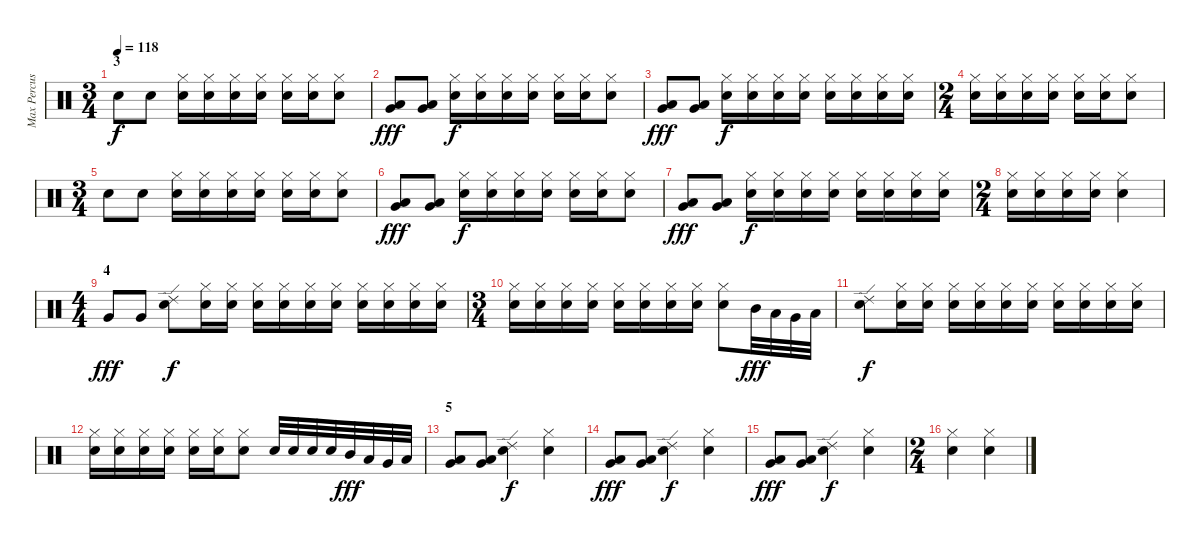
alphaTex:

\track ("Max Percussion" "Max Percus") {instrument percussion}
\staff {score}
\articulation defaults
\ts (3 4)
\section ("" "3")
\tempo 118
\clef neutral
\ks c "Snare (hit) 2".8{dy f} "Snare (hit) 2".8
("Hi-Hat (closed)" "Snare (hit) 2").16 ("Hi-Hat (closed)" "Snare (hit) 2").16 ("Hi-Hat (closed)" "Snare (hit) 2").16 ("Hi-Hat (closed)" "Snare (hit) 2").16 ("Hi-Hat (closed)" "Snare (hit) 2").16 ("Hi-Hat (closed)" "Snare (hit) 2").16 ("Hi-Hat (closed)" "Snare (hit) 2").8 |
("Low Tom (hit)" "Very Low Tom (hit)").8{dy fff} ("Low Tom (hit)" "Very Low Tom (hit)").8 ("Hi-Hat (closed)" "Snare (hit) 2").16{dy f} ("Hi-Hat (closed)" "Snare (hit) 2").16 ("Hi-Hat (closed)" "Snare (hit) 2").16 ("Hi-Hat (closed)" "Snare (hit) 2").16 ("Hi-Hat (closed)" "Snare (hit) 2").16 ("Hi-Hat (closed)" "Snare (hit) 2").16 ("Hi-Hat (closed)" "Snare (hit) 2").8 |
("Very Low Tom (hit)" "Low Floor Tom (hit)").8{dy fff} ("Very Low Tom (hit)" "Low Floor Tom (hit)").8 ("Hi-Hat (closed)" "Snare (hit) 2").16{dy f} ("Hi-Hat (closed)" "Snare (hit) 2").16 ("Hi-Hat (closed)" "Snare (hit) 2").16 ("Hi-Hat (closed)" "Snare (hit) 2").16 ("Hi-Hat (closed)" "Snare (hit) 2").16 ("Hi-Hat (closed)" "Snare (hit) 2").16 ("Hi-Hat (closed)" "Snare (hit) 2").16 ("Hi-Hat (closed)" "Snare (hit) 2").16 |
\ts (2 4)
("Hi-Hat (closed)" "Snare (hit) 2").16 ("Hi-Hat (closed)" "Snare (hit) 2").16 ("Hi-Hat (closed)" "Snare (hit) 2").16 ("Hi-Hat (closed)" "Snare (hit) 2").16 ("Hi-Hat (closed)" "Snare (hit) 2").16 ("Hi-Hat (closed)" "Snare (hit) 2").16 ("Hi-Hat (closed)" "Snare (hit) 2").8 |
\ts (3 4)
"Snare (hit) 2".8 "Snare (hit) 2".8 ("Hi-Hat (closed)" "Snare (hit) 2").16 ("Hi-Hat (closed)" "Snare (hit) 2").16 ("Hi-Hat (closed)" "Snare (hit) 2").16 ("Hi-Hat (closed)" "Snare (hit) 2").16 ("Hi-Hat (closed)" "Snare (hit) 2").16 ("Hi-Hat (closed)" "Snare (hit) 2").16 ("Hi-Hat (closed)" "Snare (hit) 2").8 |
("Low Tom (hit)" "Very Low Tom (hit)").8{dy fff} ("Low Tom (hit)" "Very Low Tom (hit)").8 ("Hi-Hat (closed)" "Snare (hit) 2").16{dy f} ("Hi-Hat (closed)" "Snare (hit) 2").16 ("Hi-Hat (closed)" "Snare (hit) 2").16 ("Hi-Hat (closed)" "Snare (hit) 2").16 ("Hi-Hat (closed)" "Snare (hit) 2").16 ("Hi-Hat (closed)" "Snare (hit) 2").16 ("Hi-Hat (closed)" "Snare (hit) 2").8 |
("Very Low Tom (hit)" "Low Floor Tom (hit)").8{dy fff} ("Very Low Tom (hit)" "Low Floor Tom (hit)").8 ("Hi-Hat (closed)" "Snare (hit) 2").16{dy f} ("Hi-Hat (closed)" "Snare (hit) 2").16 ("Hi-Hat (closed)" "Snare (hit) 2").16 ("Hi-Hat (closed)" "Snare (hit) 2").16 ("Hi-Hat (closed)" "Snare (hit) 2").16 ("Hi-Hat (closed)" "Snare (hit) 2").16 ("Hi-Hat (closed)" "Snare (hit) 2").16 ("Hi-Hat (closed)" "Snare (hit) 2").16 |
\ts (2 4)
("Hi-Hat (closed)" "Snare (hit) 2").16 ("Hi-Hat (closed)" "Snare (hit) 2").16 ("Hi-Hat (closed)" "Snare (hit) 2").16 ("Hi-Hat (closed)" "Snare (hit) 2").16 ("Hi-Hat (closed)" "Snare (hit) 2").4 |
\ts (4 4)
\section ("" "4")
"Very Low Tom (hit)".8{dy fff} "Very Low Tom (hit)".8 ("Ride (edge) 2" "Snare (hit) 2").8{dy f} ("Hi-Hat (closed)" "Snare (hit) 2").16 ("Hi-Hat (closed)" "Snare (hit) 2").16 ("Hi-Hat (closed)" "Snare (hit) 2").16 ("Hi-Hat (closed)" "Snare (hit) 2").16 ("Hi-Hat (closed)" "Snare (hit) 2").16 ("Hi-Hat (closed)" "Snare (hit) 2").16 ("Hi-Hat (closed)" "Snare (hit) 2").16 ("Hi-Hat (closed)" "Snare (hit) 2").16 ("Hi-Hat (closed)" "Snare (hit) 2").16 ("Hi-Hat (closed)" "Snare (hit) 2").16 |
\ts (3 4)
("Hi-Hat (closed)" "Snare (hit) 2").16 ("Hi-Hat (closed)" "Snare (hit) 2").16 ("Hi-Hat (closed)" "Snare (hit) 2").16 ("Hi-Hat (closed)" "Snare (hit) 2").16 ("Hi-Hat (closed)" "Snare (hit) 2").16 ("Hi-Hat (closed)" "Snare (hit) 2").16 ("Hi-Hat (closed)" "Snare (hit) 2").16 ("Hi-Hat (closed)" "Snare (hit) 2").16 ("Hi-Hat (closed)" "Snare (hit) 2").8 "Mid Tom (hit)".32{dy fff} "Low Tom (hit)".32 "Very Low Tom (hit)".32 "Low Floor Tom (hit)".32 |
("Ride (edge) 2" "Snare (hit) 2").8{dy f} ("Hi-Hat (closed)" "Snare (hit) 2").16 ("Hi-Hat (closed)" "Snare (hit) 2").16 ("Hi-Hat (closed)" "Snare (hit) 2").16 ("Hi-Hat (closed)" "Snare (hit) 2").16 ("Hi-Hat (closed)" "Snare (hit) 2").16 ("Hi-Hat (closed)" "Snare (hit) 2").16 ("Hi-Hat (closed)" "Snare (hit) 2").16 ("Hi-Hat (closed)" "Snare (hit) 2").16 ("Hi-Hat (closed)" "Snare (hit) 2").16 ("Hi-Hat (closed)" "Snare (hit) 2").16 |
("Hi-Hat (closed)" "Snare (hit) 2").16 ("Hi-Hat (closed)" "Snare (hit) 2").16 ("Hi-Hat (closed)" "Snare (hit) 2").16 ("Hi-Hat (closed)" "Snare (hit) 2").16 ("Hi-Hat (closed)" "Snare (hit) 2").16 ("Hi-Hat (closed)" "Snare (hit) 2").16 ("Hi-Hat (closed)" "Snare (hit) 2").8 "Snare (hit) 2".32 "Snare (hit) 2".32 "Snare (hit) 2".32 "Snare (hit) 2".32 "Mid Tom (hit)".32{dy fff} "Low Tom (hit)".32 "Very Low Tom (hit)".32 "Low Floor Tom (hit)".32 |
\section ("" "5")
("Low Floor Tom (hit)" "Very Low Tom (hit)").8 ("Low Floor Tom (hit)" "Very Low Tom (hit)").8 ("Ride (edge) 2" "Snare (hit) 2").4{dy f} ("Hi-Hat (closed)" "Snare (hit) 2").4 |
("Low Floor Tom (hit)" "Very Low Tom (hit)").8{dy fff} ("Low Floor Tom (hit)" "Very Low Tom (hit)").8 ("Ride (edge) 2" "Snare (hit) 2").4{dy f} ("Hi-Hat (closed)" "Snare (hit) 2").4 |
("Low Floor Tom (hit)" "Very Low Tom (hit)").8{dy fff} ("Low Floor Tom (hit)" "Very Low Tom (hit)").8 ("Ride (edge) 2" "Snare (hit) 2").4{dy f} ("Hi-Hat (closed)" "Snare (hit) 2").4 |
\ts (2 4)
("Hi-Hat (closed)" "Snare (hit) 2").4 ("Hi-Hat (closed)" "Snare (hit) 2").4
